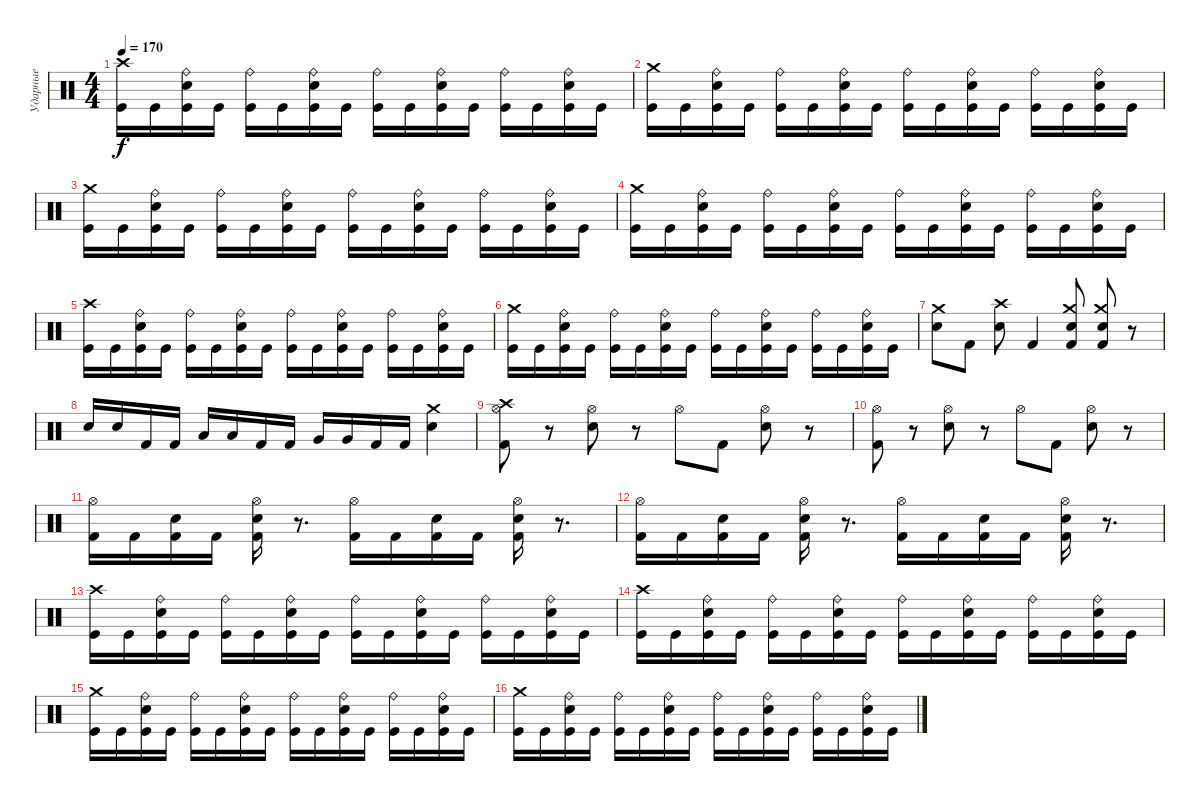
\track ("Ударные" "Ударные") {instrument percussion}
\staff {score}
\articulation defaults
\ts (4 4)
\tempo 170
\clef neutral
\ks c
("Crash high (hit)" "Kick (hit)").16{dy f} "Kick (hit)".16 ("Ride (bell)" "Snare (hit) 2" "Kick (hit)").16 "Kick (hit)".16 ("Ride (bell)" "Kick (hit)").16 "Kick (hit)".16 ("Ride (bell)" "Snare (hit) 2" "Kick (hit)").16 "Kick (hit)".16 ("Ride (bell)" "Kick (hit)").16 "Kick (hit)".16 ("Ride (bell)" "Snare (hit) 2" "Kick (hit)").16 "Kick (hit)".16 ("Ride (bell)" "Kick (hit)").16 "Kick (hit)".16 ("Ride (bell)" "Snare (hit) 2" "Kick (hit)").16 "Kick (hit)".16 |
("Crash medium (hit)" "Kick (hit)").16 "Kick (hit)".16 ("Ride (bell)" "Snare (hit) 2" "Kick (hit)").16 "Kick (hit)".16 ("Ride (bell)" "Kick (hit)").16 "Kick (hit)".16 ("Ride (bell)" "Snare (hit) 2" "Kick (hit)").16 "Kick (hit)".16 ("Ride (bell)" "Kick (hit)").16 "Kick (hit)".16 ("Ride (bell)" "Snare (hit) 2" "Kick (hit)").16 "Kick (hit)".16 ("Ride (bell)" "Kick (hit)").16 "Kick (hit)".16 ("Ride (bell)" "Snare (hit) 2" "Kick (hit)").16 "Kick (hit)".16 |
("Crash medium (hit)" "Kick (hit)").16 "Kick (hit)".16 ("Ride (bell)" "Snare (hit) 2" "Kick (hit)").16 "Kick (hit)".16 ("Ride (bell)" "Kick (hit)").16 "Kick (hit)".16 ("Ride (bell)" "Snare (hit) 2" "Kick (hit)").16 "Kick (hit)".16 ("Ride (bell)" "Kick (hit)").16 "Kick (hit)".16 ("Ride (bell)" "Snare (hit) 2" "Kick (hit)").16 "Kick (hit)".16 ("Ride (bell)" "Kick (hit)").16 "Kick (hit)".16 ("Ride (bell)" "Snare (hit) 2" "Kick (hit)").16 "Kick (hit)".16 |
("Crash medium (hit)" "Kick (hit)").16 "Kick (hit)".16 ("Ride (bell)" "Snare (hit) 2" "Kick (hit)").16 "Kick (hit)".16 ("Ride (bell)" "Kick (hit)").16 "Kick (hit)".16 ("Ride (bell)" "Snare (hit) 2" "Kick (hit)").16 "Kick (hit)".16 ("Ride (bell)" "Kick (hit)").16 "Kick (hit)".16 ("Ride (bell)" "Snare (hit) 2" "Kick (hit)").16 "Kick (hit)".16 ("Ride (bell)" "Kick (hit)").16 "Kick (hit)".16 ("Ride (bell)" "Snare (hit) 2" "Kick (hit)").16 "Kick (hit)".16 |
("Crash high (hit)" "Kick (hit)").16 "Kick (hit)".16 ("Ride (bell)" "Snare (hit) 2" "Kick (hit)").16 "Kick (hit)".16 ("Ride (bell)" "Kick (hit)").16 "Kick (hit)".16 ("Ride (bell)" "Snare (hit) 2" "Kick (hit)").16 "Kick (hit)".16 ("Ride (bell)" "Kick (hit)").16 "Kick (hit)".16 ("Ride (bell)" "Snare (hit) 2" "Kick (hit)").16 "Kick (hit)".16 ("Ride (bell)" "Kick (hit)").16 "Kick (hit)".16 ("Ride (bell)" "Snare (hit) 2" "Kick (hit)").16 "Kick (hit)".16 |
("Crash medium (hit)" "Kick (hit)").16 "Kick (hit)".16 ("Ride (bell)" "Snare (hit) 2" "Kick (hit)").16 "Kick (hit)".16 ("Ride (bell)" "Kick (hit)").16 "Kick (hit)".16 ("Ride (bell)" "Snare (hit) 2" "Kick (hit)").16 "Kick (hit)".16 ("Ride (bell)" "Kick (hit)").16 "Kick (hit)".16 ("Ride (bell)" "Snare (hit) 2" "Kick (hit)").16 "Kick (hit)".16 ("Ride (bell)" "Kick (hit)").16 "Kick (hit)".16 ("Ride (bell)" "Snare (hit) 2" "Kick (hit)").16 "Kick (hit)".16 |
("Crash medium (hit)" "Snare (hit) 2").8 "Kick (hit) 2".8 ("Crash high (hit)" "Snare (hit) 2").8 "Kick (hit) 2".4 ("Crash medium (hit)" "Kick (hit) 2" "Snare (hit) 2").8 ("Crash medium (hit)" "Kick (hit) 2" "Snare (hit) 2").8 r.8 |
"Electric Snare (hit)".16 "Electric Snare (hit)".16 "Kick (hit) 2".16 "Kick (hit) 2".16 "Low Tom (hit)".16 "Low Tom (hit)".16 "Kick (hit) 2".16 "Kick (hit) 2".16 "Very Low Tom (hit)".16 "Very Low Tom (hit)".16 "Kick (hit) 2".16 "Kick (hit) 2".16 ("Crash medium (hit)" "Electric Snare (hit)").4 |
("Crash high (hit)" "Hi-Hat (open)" "Kick (hit) 2").8 r.8 ("Hi-Hat (open)" "Snare (hit) 2").8 r.8 "Hi-Hat (open)".8 "Kick (hit) 2".8 ("Hi-Hat (open)" "Snare (hit) 2").8 r.8 |
("Hi-Hat (open)" "Kick (hit) 2").8 r.8 ("Hi-Hat (open)" "Snare (hit) 2").8 r.8 "Hi-Hat (open)".8 "Kick (hit) 2".8 ("Hi-Hat (open)" "Snare (hit) 2").8 r.8 |
("Hi-Hat (open)" "Kick (hit) 2").16 "Kick (hit) 2".16 ("Snare (hit)" "Kick (hit) 2").16 "Kick (hit) 2".16 ("Hi-Hat (open)" "Snare (hit) 2" "Kick (hit) 2").16 r.8{d} ("Hi-Hat (open)" "Kick (hit) 2").16 "Kick (hit) 2".16 ("Snare (hit)" "Kick (hit) 2").16 "Kick (hit) 2".16 ("Hi-Hat (open)" "Snare (hit) 2" "Kick (hit) 2").16 r.8{d} |
("Hi-Hat (open)" "Kick (hit) 2").16 "Kick (hit) 2".16 ("Snare (hit)" "Kick (hit) 2").16 "Kick (hit) 2".16 ("Hi-Hat (open)" "Snare (hit) 2" "Kick (hit) 2").16 r.8{d} ("Hi-Hat (open)" "Kick (hit) 2").16 "Kick (hit) 2".16 ("Snare (hit)" "Kick (hit) 2").16 "Kick (hit) 2".16 ("Hi-Hat (open)" "Snare (hit) 2" "Kick (hit) 2").16 r.8{d} |
("Crash high (hit)" "Kick (hit)").16 "Kick (hit)".16 ("Ride (bell)" "Snare (hit) 2" "Kick (hit)").16 "Kick (hit)".16 ("Ride (bell)" "Kick (hit)").16 "Kick (hit)".16 ("Ride (bell)" "Snare (hit) 2" "Kick (hit)").16 "Kick (hit)".16 ("Ride (bell)" "Kick (hit)").16 "Kick (hit)".16 ("Ride (bell)" "Snare (hit) 2" "Kick (hit)").16 "Kick (hit)".16 ("Ride (bell)" "Kick (hit)").16 "Kick (hit)".16 ("Ride (bell)" "Snare (hit) 2" "Kick (hit)").16 "Kick (hit)".16 |
("Crash high (hit)" "Kick (hit)").16 "Kick (hit)".16 ("Ride (bell)" "Snare (hit) 2" "Kick (hit)").16 "Kick (hit)".16 ("Ride (bell)" "Kick (hit)").16 "Kick (hit)".16 ("Ride (bell)" "Snare (hit) 2" "Kick (hit)").16 "Kick (hit)".16 ("Ride (bell)" "Kick (hit)").16 "Kick (hit)".16 ("Ride (bell)" "Snare (hit) 2" "Kick (hit)").16 "Kick (hit)".16 ("Ride (bell)" "Kick (hit)").16 "Kick (hit)".16 ("Ride (bell)" "Snare (hit) 2" "Kick (hit)").16 "Kick (hit)".16 |
("Crash medium (hit)" "Kick (hit)").16 "Kick (hit)".16 ("Ride (bell)" "Snare (hit) 2" "Kick (hit)").16 "Kick (hit)".16 ("Ride (bell)" "Kick (hit)").16 "Kick (hit)".16 ("Ride (bell)" "Snare (hit) 2" "Kick (hit)").16 "Kick (hit)".16 ("Ride (bell)" "Kick (hit)").16 "Kick (hit)".16 ("Ride (bell)" "Snare (hit) 2" "Kick (hit)").16 "Kick (hit)".16 ("Ride (bell)" "Kick (hit)").16 "Kick (hit)".16 ("Ride (bell)" "Snare (hit) 2" "Kick (hit)").16 "Kick (hit)".16 |
("Crash medium (hit)" "Kick (hit)").16 "Kick (hit)".16 ("Ride (bell)" "Snare (hit) 2" "Kick (hit)").16 "Kick (hit)".16 ("Ride (bell)" "Kick (hit)").16 "Kick (hit)".16 ("Ride (bell)" "Snare (hit) 2" "Kick (hit)").16 "Kick (hit)".16 ("Ride (bell)" "Kick (hit)").16 "Kick (hit)".16 ("Ride (bell)" "Snare (hit) 2" "Kick (hit)").16 "Kick (hit)".16 ("Ride (bell)" "Kick (hit)").16 "Kick (hit)".16 ("Ride (bell)" "Snare (hit) 2" "Kick (hit)").16 "Kick (hit)".16
